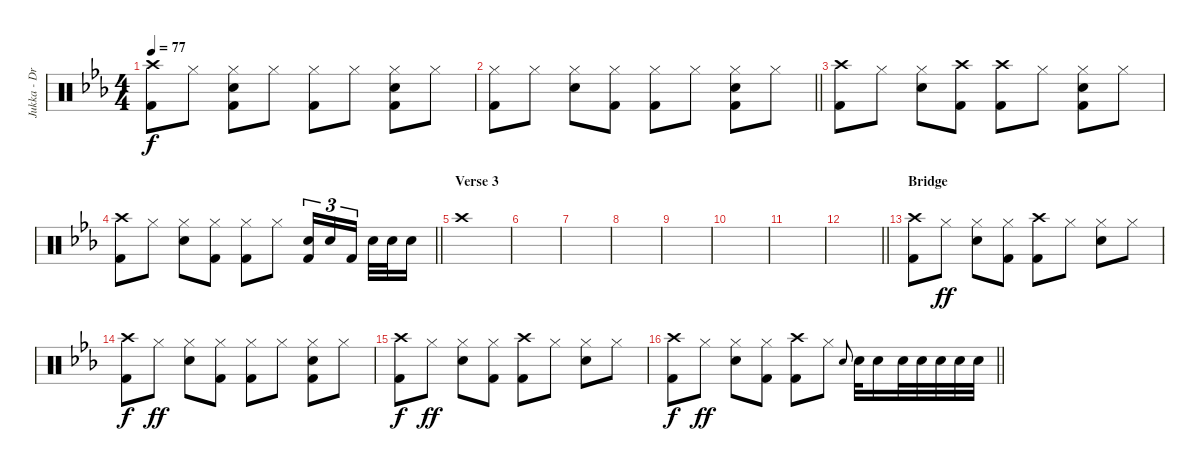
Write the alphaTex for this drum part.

\track ("Jukka - Drums" "Jukka - Dr") {instrument percussion}
\staff {score}
\articulation defaults
\ts (4 4)
\tempo 77
\clef neutral
\ks cminor
("Crash high (hit)" "Kick (hit) 2").8{dy f} "Hi-Hat (closed)".8 ("Snare (hit) 2" "Hi-Hat (closed)" "Kick (hit) 2").8 "Hi-Hat (closed)".8 ("Hi-Hat (closed)" "Kick (hit) 2").8 "Hi-Hat (closed)".8 ("Hi-Hat (closed)" "Snare (hit) 2" "Kick (hit) 2").8 "Hi-Hat (closed)".8 |
\barLineRight lightlight
("Hi-Hat (closed)" "Kick (hit) 2").8 "Hi-Hat (closed)".8 ("Snare (hit) 2" "Hi-Hat (closed)").8 ("Hi-Hat (closed)" "Kick (hit) 2").8 ("Hi-Hat (closed)" "Kick (hit) 2").8 "Hi-Hat (closed)".8 ("Hi-Hat (closed)" "Snare (hit) 2" "Kick (hit) 2").8 "Hi-Hat (closed)".8 |
("Crash high (hit)" "Kick (hit) 2").8 "Hi-Hat (closed)".8 ("Snare (hit) 2" "Hi-Hat (closed)").8 ("Crash high (hit)" "Kick (hit) 2").8 ("Crash high (hit)" "Kick (hit) 2").8 "Hi-Hat (closed)".8 ("Hi-Hat (closed)" "Snare (hit) 2" "Kick (hit) 2").8 "Hi-Hat (closed)".8 |
\barLineRight lightlight
("Crash high (hit)" "Kick (hit) 2").8 "Hi-Hat (closed)".8 ("Snare (hit) 2" "Hi-Hat (closed)").8 ("Hi-Hat (closed)" "Kick (hit) 2").8 ("Hi-Hat (closed)" "Kick (hit) 2").8 "Hi-Hat (closed)".8 ("Snare (hit) 2" "Kick (hit) 2").16{tu (3 2)} "Snare (hit) 2".16{tu (3 2)} "Kick (hit) 2".16{tu (3 2) beam splitsecondary} "Snare (hit) 2".32 "Snare (hit) 2".32 "Snare (hit) 2".16 |
\section ("" "Verse 3")
"Crash high (hit)".1 |
|
|
|
|
|
|
\barLineRight lightlight
|
\section ("" "Bridge")
("Crash high (hit)" "Kick (hit) 2").8 "Hi-Hat (closed)".8{dy ff} ("Snare (hit) 2" "Hi-Hat (closed)").8 ("Hi-Hat (closed)" "Kick (hit) 2").8 ("Crash high (hit)" "Kick (hit) 2").8 "Hi-Hat (closed)".8 ("Snare (hit) 2" "Hi-Hat (closed)").8 "Hi-Hat (closed)".8 |
("Crash high (hit)" "Kick (hit) 2").8{dy f} "Hi-Hat (closed)".8{dy ff} ("Snare (hit) 2" "Hi-Hat (closed)").8 ("Hi-Hat (closed)" "Kick (hit) 2").8 ("Hi-Hat (closed)" "Kick (hit) 2").8 "Hi-Hat (closed)".8 ("Snare (hit) 2" "Hi-Hat (closed)" "Kick (hit) 2").8 "Hi-Hat (closed)".8 |
("Crash high (hit)" "Kick (hit) 2").8{dy f} "Hi-Hat (closed)".8{dy ff} ("Snare (hit) 2" "Hi-Hat (closed)").8 ("Hi-Hat (closed)" "Kick (hit) 2").8 ("Crash high (hit)" "Kick (hit) 2").8 "Hi-Hat (closed)".8 ("Snare (hit) 2" "Hi-Hat (closed)").8 "Hi-Hat (closed)".8 |
\barLineRight lightlight
("Crash high (hit)" "Kick (hit) 2").8{dy f} "Hi-Hat (closed)".8{dy ff} ("Snare (hit) 2" "Hi-Hat (closed)").8 ("Hi-Hat (closed)" "Kick (hit) 2").8 ("Crash high (hit)" "Kick (hit) 2").8 "Hi-Hat (closed)".8 "Snare (hit) 2".8{gr onbeat} "Snare (hit) 2".32 "Snare (hit) 2".16 "Snare (hit) 2".32 "Snare (hit) 2".32 "Snare (hit) 2".32 "Snare (hit) 2".32 "Snare (hit) 2".32
